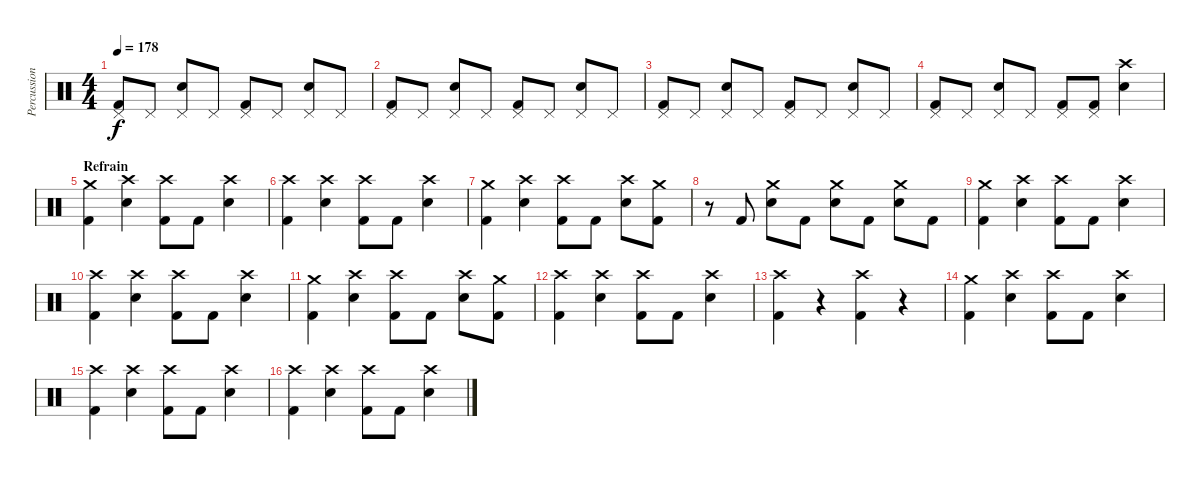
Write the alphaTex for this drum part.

\track ("Percussion" "Percussion") {instrument percussion}
\staff {score}
\articulation defaults
\ts (4 4)
\tempo 178
\clef neutral
\ks c
("Pedal Hi-Hat (hit)" "Kick (hit) 2").8{dy f} "Pedal Hi-Hat (hit)".8 ("Pedal Hi-Hat (hit)" "Snare (hit) 2").8 "Pedal Hi-Hat (hit)".8 ("Pedal Hi-Hat (hit)" "Kick (hit) 2").8 "Pedal Hi-Hat (hit)".8 ("Pedal Hi-Hat (hit)" "Snare (hit) 2").8 "Pedal Hi-Hat (hit)".8 |
("Pedal Hi-Hat (hit)" "Kick (hit) 2").8 "Pedal Hi-Hat (hit)".8 ("Pedal Hi-Hat (hit)" "Snare (hit) 2").8 "Pedal Hi-Hat (hit)".8 ("Pedal Hi-Hat (hit)" "Kick (hit) 2").8 "Pedal Hi-Hat (hit)".8 ("Pedal Hi-Hat (hit)" "Snare (hit) 2").8 "Pedal Hi-Hat (hit)".8 |
("Pedal Hi-Hat (hit)" "Kick (hit) 2").8 "Pedal Hi-Hat (hit)".8 ("Pedal Hi-Hat (hit)" "Snare (hit) 2").8 "Pedal Hi-Hat (hit)".8 ("Pedal Hi-Hat (hit)" "Kick (hit) 2").8 "Pedal Hi-Hat (hit)".8 ("Pedal Hi-Hat (hit)" "Snare (hit) 2").8 "Pedal Hi-Hat (hit)".8 |
("Pedal Hi-Hat (hit)" "Kick (hit) 2").8 "Pedal Hi-Hat (hit)".8 ("Pedal Hi-Hat (hit)" "Snare (hit) 2").8 "Pedal Hi-Hat (hit)".8 ("Pedal Hi-Hat (hit)" "Kick (hit) 2").8 ("Pedal Hi-Hat (hit)" "Kick (hit) 2").8 ("Crash high (hit)" "Snare (hit) 2").4 |
\section ("" "Refrain")
("Crash medium (hit)" "Kick (hit) 2").4 ("Crash high (hit)" "Snare (hit) 2").4 ("Crash high (hit)" "Kick (hit) 2").8 "Kick (hit) 2".8 ("Crash high (hit)" "Snare (hit) 2").4 |
("Crash high (hit)" "Kick (hit) 2").4 ("Crash high (hit)" "Snare (hit) 2").4 ("Crash high (hit)" "Kick (hit) 2").8 "Kick (hit) 2".8 ("Crash high (hit)" "Snare (hit) 2").4 |
("Crash medium (hit)" "Kick (hit) 2").4 ("Crash high (hit)" "Snare (hit) 2").4 ("Crash high (hit)" "Kick (hit) 2").8 "Kick (hit) 2".8 ("Crash high (hit)" "Snare (hit) 2").8 ("Crash medium (hit)" "Kick (hit) 2").8 |
r.8 "Kick (hit) 2".8 ("Crash medium (hit)" "Snare (hit) 2").8 "Kick (hit) 2".8 ("Crash medium (hit)" "Snare (hit) 2").8 "Kick (hit) 2".8 ("Crash medium (hit)" "Snare (hit) 2").8 "Kick (hit) 2".8 |
("Crash medium (hit)" "Kick (hit) 2").4 ("Crash high (hit)" "Snare (hit) 2").4 ("Crash high (hit)" "Kick (hit) 2").8 "Kick (hit) 2".8 ("Crash high (hit)" "Snare (hit) 2").4 |
("Crash high (hit)" "Kick (hit) 2").4 ("Crash high (hit)" "Snare (hit) 2").4 ("Crash high (hit)" "Kick (hit) 2").8 "Kick (hit) 2".8 ("Crash high (hit)" "Snare (hit) 2").4 |
("Crash medium (hit)" "Kick (hit) 2").4 ("Crash high (hit)" "Snare (hit) 2").4 ("Crash high (hit)" "Kick (hit) 2").8 "Kick (hit) 2".8 ("Crash high (hit)" "Snare (hit) 2").8 ("Crash medium (hit)" "Kick (hit) 2").8 |
("Crash high (hit)" "Kick (hit) 2").4 ("Crash high (hit)" "Snare (hit) 2").4 ("Crash high (hit)" "Kick (hit) 2").8 "Kick (hit) 2".8 ("Crash high (hit)" "Snare (hit) 2").4 |
("Crash high (hit)" "Kick (hit) 2").4 r.4 ("Crash high (hit)" "Kick (hit) 2").4 r.4 |
("Crash medium (hit)" "Kick (hit) 2").4 ("Crash high (hit)" "Snare (hit) 2").4 ("Crash high (hit)" "Kick (hit) 2").8 "Kick (hit) 2".8 ("Crash high (hit)" "Snare (hit) 2").4 |
("Crash high (hit)" "Kick (hit) 2").4 ("Crash high (hit)" "Snare (hit) 2").4 ("Crash high (hit)" "Kick (hit) 2").8 "Kick (hit) 2".8 ("Crash high (hit)" "Snare (hit) 2").4 |
("Crash high (hit)" "Kick (hit) 2").4 ("Crash high (hit)" "Snare (hit) 2").4 ("Crash high (hit)" "Kick (hit) 2").8 "Kick (hit) 2".8 ("Crash high (hit)" "Snare (hit) 2").4
